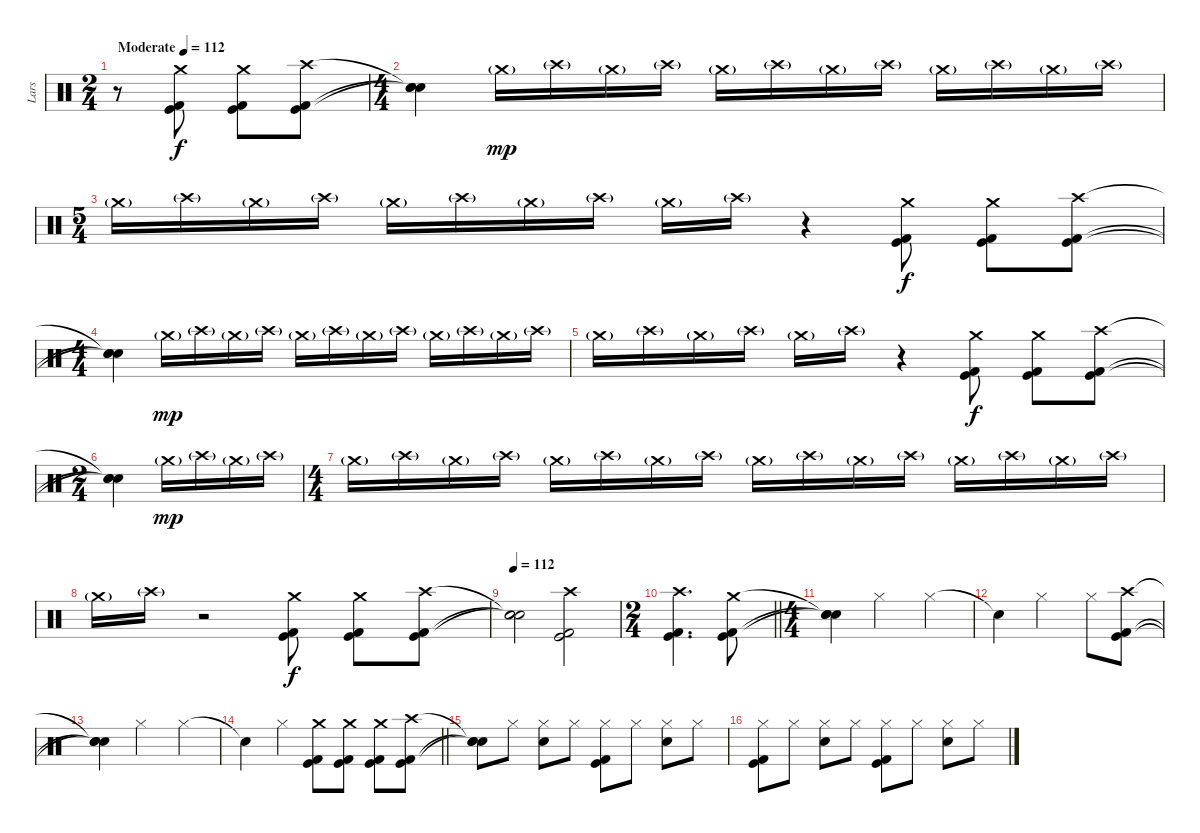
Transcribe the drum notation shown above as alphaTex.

\track ("Lars" "Lars") {instrument percussion}
\staff {score}
\articulation defaults
\ts (2 4)
\tempo (112 "Moderate")
\tempo 100
\tempo (112 "Moderate")
\clef neutral
\ks c
r.8{dy f} ("Crash medium (hit)" "Kick (hit)" "Kick (hit) 2").8 ("Crash medium (hit)" "Kick (hit)" "Kick (hit) 2").8 ("Crash high (hit)" "Kick (hit)" "Kick (hit) 2").8 |
\ts (4 4)
("Snare (hit)"{t} "Snare (hit)"{t} "Snare (hit)"{t}).4 "Crash medium (hit)"{g}.16{dy mp} "Crash high (hit)"{g}.16 "Crash medium (hit)"{g}.16 "Crash high (hit)"{g}.16 "Crash medium (hit)"{g}.16 "Crash high (hit)"{g}.16 "Crash medium (hit)"{g}.16 "Crash high (hit)"{g}.16 "Crash medium (hit)"{g}.16 "Crash high (hit)"{g}.16 "Crash medium (hit)"{g}.16 "Crash high (hit)"{g}.16 |
\ts (5 4)
"Crash medium (hit)"{g}.16 "Crash high (hit)"{g}.16 "Crash medium (hit)"{g}.16 "Crash high (hit)"{g}.16 "Crash medium (hit)"{g}.16 "Crash high (hit)"{g}.16 "Crash medium (hit)"{g}.16 "Crash high (hit)"{g}.16 "Crash medium (hit)"{g}.16 "Crash high (hit)"{g}.16 r.4 ("Crash medium (hit)" "Kick (hit)" "Kick (hit) 2").8{dy f} ("Crash medium (hit)" "Kick (hit)" "Kick (hit) 2").8 ("Crash high (hit)" "Kick (hit)" "Kick (hit) 2").8 |
\ts (4 4)
("Snare (hit)"{t} "Snare (hit)"{t} "Snare (hit)"{t}).4 "Crash medium (hit)"{g}.16{dy mp} "Crash high (hit)"{g}.16 "Crash medium (hit)"{g}.16 "Crash high (hit)"{g}.16 "Crash medium (hit)"{g}.16 "Crash high (hit)"{g}.16 "Crash medium (hit)"{g}.16 "Crash high (hit)"{g}.16 "Crash medium (hit)"{g}.16 "Crash high (hit)"{g}.16 "Crash medium (hit)"{g}.16 "Crash high (hit)"{g}.16 |
"Crash medium (hit)"{g}.16 "Crash high (hit)"{g}.16 "Crash medium (hit)"{g}.16 "Crash high (hit)"{g}.16 "Crash medium (hit)"{g}.16 "Crash high (hit)"{g}.16 r.4 ("Crash medium (hit)" "Kick (hit)" "Kick (hit) 2").8{dy f} ("Crash medium (hit)" "Kick (hit)" "Kick (hit) 2").8 ("Crash high (hit)" "Kick (hit)" "Kick (hit) 2").8 |
\ts (2 4)
("Snare (hit)"{t} "Snare (hit)"{t} "Snare (hit)"{t}).4 "Crash medium (hit)"{g}.16{dy mp} "Crash high (hit)"{g}.16 "Crash medium (hit)"{g}.16 "Crash high (hit)"{g}.16 |
\ts (4 4)
"Crash medium (hit)"{g}.16 "Crash high (hit)"{g}.16 "Crash medium (hit)"{g}.16 "Crash high (hit)"{g}.16 "Crash medium (hit)"{g}.16 "Crash high (hit)"{g}.16 "Crash medium (hit)"{g}.16 "Crash high (hit)"{g}.16 "Crash medium (hit)"{g}.16 "Crash high (hit)"{g}.16 "Crash medium (hit)"{g}.16 "Crash high (hit)"{g}.16 "Crash medium (hit)"{g}.16 "Crash high (hit)"{g}.16 "Crash medium (hit)"{g}.16 "Crash high (hit)"{g}.16 |
"Crash medium (hit)"{g}.16 "Crash high (hit)"{g}.16 r.2 ("Crash medium (hit)" "Kick (hit)" "Kick (hit) 2").8{dy f} ("Crash medium (hit)" "Kick (hit)" "Kick (hit) 2").8 ("Crash high (hit)" "Kick (hit)" "Kick (hit) 2").8 |
\tempo 112
("Snare (hit)"{t} "Snare (hit)"{t} "Snare (hit)"{t}).2 ("Crash high (hit)" "Kick (hit)" "Kick (hit) 2").2 |
\ts (2 4)
\barLineRight lightlight
("Crash high (hit)" "Kick (hit)" "Kick (hit) 2").4{d} ("Crash medium (hit)" "Kick (hit)" "Kick (hit) 2").8 |
\ts (4 4)
\section ("" "")
("Snare (hit)"{t} "Snare (hit)"{t} "Snare (hit)"{t}).4 "Hi-Hat (closed)".2 "Hi-Hat (closed)".4 |
"Snare (hit)"{t}.4 "Hi-Hat (closed)".2 "Hi-Hat (closed)".8 ("Crash high (hit)" "Kick (hit)" "Kick (hit) 2").8 |
("Snare (hit)"{t} "Snare (hit)"{t} "Snare (hit)"{t}).4 "Hi-Hat (closed)".2 "Hi-Hat (closed)".4 |
\barLineRight lightlight "Snare (hit)"{t}.4 "Hi-Hat (closed)".4
("Crash medium (hit)" "Kick (hit)" "Kick (hit) 2").8 ("Crash medium (hit)" "Kick (hit)" "Kick (hit) 2").8 ("Crash medium (hit)" "Kick (hit)" "Kick (hit) 2").8 ("Crash high (hit)" "Kick (hit)" "Kick (hit) 2").8 |
\section ("" "")
("Snare (hit)"{t} "Snare (hit)"{t} "Snare (hit)"{t}).8 "Hi-Hat (closed)".8 ("Hi-Hat (closed)" "Electric Snare (hit)").8 "Hi-Hat (closed)".8 ("Hi-Hat (closed)" "Kick (hit)" "Kick (hit) 2").8 "Hi-Hat (closed)".8 ("Hi-Hat (closed)" "Electric Snare (hit)").8 "Hi-Hat (closed)".8 |
("Hi-Hat (closed)" "Kick (hit)" "Kick (hit) 2").8 "Hi-Hat (closed)".8 ("Hi-Hat (closed)" "Electric Snare (hit)").8 "Hi-Hat (closed)".8 ("Hi-Hat (closed)" "Kick (hit)" "Kick (hit) 2").8 "Hi-Hat (closed)".8 ("Hi-Hat (closed)" "Electric Snare (hit)").8 "Hi-Hat (closed)".8
